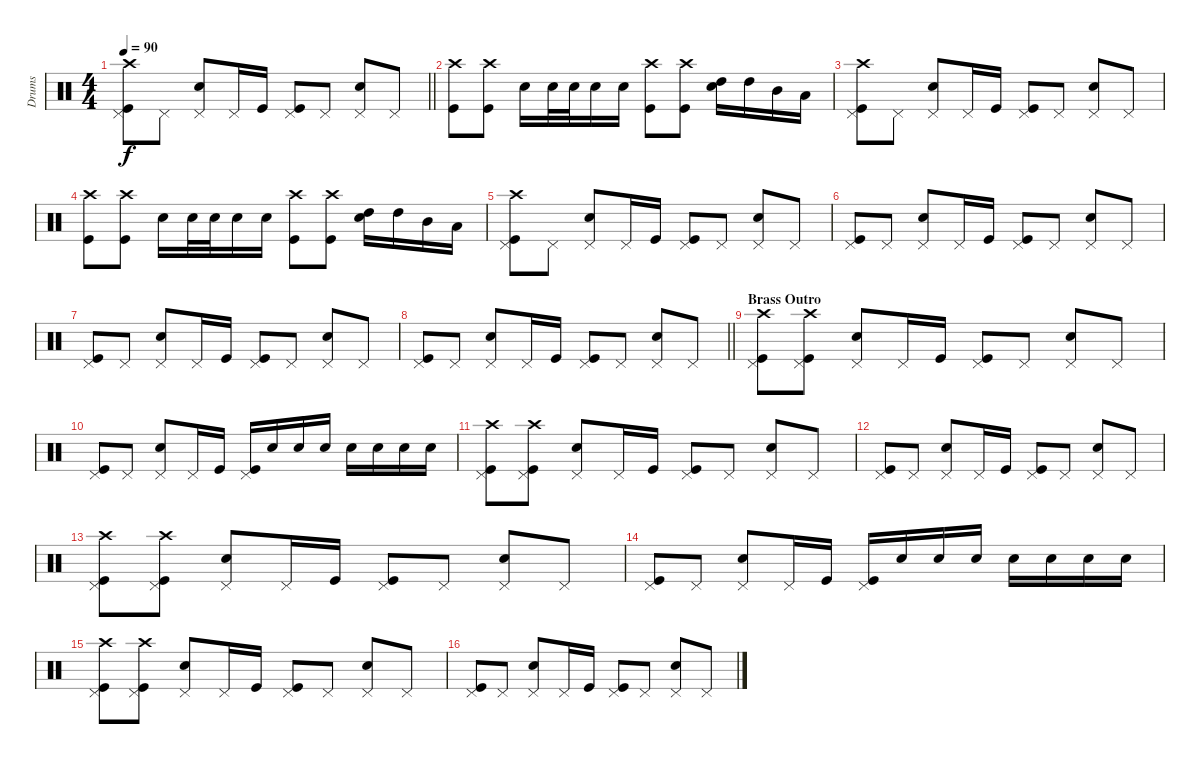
\track ("Drums" "Drums") {instrument percussion}
\staff {score}
\articulation defaults
\ts (4 4)
\tempo 90
\clef neutral
\barLineRight lightlight
\ks c
("Pedal Hi-Hat (hit)" "Kick (hit)" "Crash high (hit)").8{dy f} "Pedal Hi-Hat (hit)".8 ("Pedal Hi-Hat (hit)" "Snare (hit) 2").8 "Pedal Hi-Hat (hit)".16 "Kick (hit)".16 ("Pedal Hi-Hat (hit)" "Kick (hit)").8 "Pedal Hi-Hat (hit)".8 ("Pedal Hi-Hat (hit)" "Snare (hit) 2").8 "Pedal Hi-Hat (hit)".8 |
("Kick (hit)" "Crash high (hit)").8 ("Kick (hit)" "Crash high (hit)").8 "Snare (hit) 2".16 "Snare (hit) 2".32 "Snare (hit) 2".32 "Snare (hit) 2".16 "Snare (hit) 2".16 ("Kick (hit)" "Crash high (hit)").8 ("Kick (hit)" "Crash high (hit)").8 ("Snare (hit) 2" "High Tom (hit)").16 "High Tom (hit)".16 "Mid Tom (hit)".16 "Low Tom (hit)".16 |
("Pedal Hi-Hat (hit)" "Kick (hit)" "Crash high (hit)").8 "Pedal Hi-Hat (hit)".8 ("Pedal Hi-Hat (hit)" "Snare (hit) 2").8 "Pedal Hi-Hat (hit)".16 "Kick (hit)".16 ("Pedal Hi-Hat (hit)" "Kick (hit)").8 "Pedal Hi-Hat (hit)".8 ("Pedal Hi-Hat (hit)" "Snare (hit) 2").8 "Pedal Hi-Hat (hit)".8 |
("Kick (hit)" "Crash high (hit)").8 ("Kick (hit)" "Crash high (hit)").8 "Snare (hit) 2".16 "Snare (hit) 2".32 "Snare (hit) 2".32 "Snare (hit) 2".16 "Snare (hit) 2".16 ("Kick (hit)" "Crash high (hit)").8 ("Kick (hit)" "Crash high (hit)").8 ("Snare (hit) 2" "High Tom (hit)").16 "High Tom (hit)".16 "Mid Tom (hit)".16 "Low Tom (hit)".16 |
("Pedal Hi-Hat (hit)" "Kick (hit)" "Crash high (hit)").8 "Pedal Hi-Hat (hit)".8 ("Pedal Hi-Hat (hit)" "Snare (hit) 2").8 "Pedal Hi-Hat (hit)".16 "Kick (hit)".16 ("Pedal Hi-Hat (hit)" "Kick (hit)").8 "Pedal Hi-Hat (hit)".8 ("Pedal Hi-Hat (hit)" "Snare (hit) 2").8 "Pedal Hi-Hat (hit)".8 |
("Pedal Hi-Hat (hit)" "Kick (hit)").8 "Pedal Hi-Hat (hit)".8 ("Pedal Hi-Hat (hit)" "Snare (hit) 2").8 "Pedal Hi-Hat (hit)".16 "Kick (hit)".16 ("Pedal Hi-Hat (hit)" "Kick (hit)").8 "Pedal Hi-Hat (hit)".8 ("Pedal Hi-Hat (hit)" "Snare (hit) 2").8 "Pedal Hi-Hat (hit)".8 |
("Pedal Hi-Hat (hit)" "Kick (hit)").8 "Pedal Hi-Hat (hit)".8 ("Pedal Hi-Hat (hit)" "Snare (hit) 2").8 "Pedal Hi-Hat (hit)".16 "Kick (hit)".16 ("Pedal Hi-Hat (hit)" "Kick (hit)").8 "Pedal Hi-Hat (hit)".8 ("Pedal Hi-Hat (hit)" "Snare (hit) 2").8 "Pedal Hi-Hat (hit)".8 |
\barLineRight lightlight
("Pedal Hi-Hat (hit)" "Kick (hit)").8 "Pedal Hi-Hat (hit)".8 ("Pedal Hi-Hat (hit)" "Snare (hit) 2").8 "Pedal Hi-Hat (hit)".16 "Kick (hit)".16 ("Pedal Hi-Hat (hit)" "Kick (hit)").8 "Pedal Hi-Hat (hit)".8 ("Pedal Hi-Hat (hit)" "Snare (hit) 2").8 "Pedal Hi-Hat (hit)".8 |
\section ("" "Brass Outro")
("Pedal Hi-Hat (hit)" "Kick (hit)" "Crash high (hit)").8 ("Pedal Hi-Hat (hit)" "Kick (hit)" "Crash high (hit)").8 ("Pedal Hi-Hat (hit)" "Snare (hit) 2").8 "Pedal Hi-Hat (hit)".16 "Kick (hit)".16 ("Pedal Hi-Hat (hit)" "Kick (hit)").8 "Pedal Hi-Hat (hit)".8 ("Pedal Hi-Hat (hit)" "Snare (hit) 2").8 "Pedal Hi-Hat (hit)".8 |
("Pedal Hi-Hat (hit)" "Kick (hit)").8 "Pedal Hi-Hat (hit)".8 ("Pedal Hi-Hat (hit)" "Snare (hit) 2").8 "Pedal Hi-Hat (hit)".16 "Kick (hit)".16 ("Pedal Hi-Hat (hit)" "Kick (hit)").16 "Snare (hit) 2".16 "Snare (hit) 2".16 "Snare (hit) 2".16 "Snare (hit) 2".16 "Snare (hit) 2".16 "Snare (hit) 2".16 "Snare (hit) 2".16 |
("Pedal Hi-Hat (hit)" "Kick (hit)" "Crash high (hit)").8 ("Pedal Hi-Hat (hit)" "Kick (hit)" "Crash high (hit)").8 ("Pedal Hi-Hat (hit)" "Snare (hit) 2").8 "Pedal Hi-Hat (hit)".16 "Kick (hit)".16 ("Pedal Hi-Hat (hit)" "Kick (hit)").8 "Pedal Hi-Hat (hit)".8 ("Pedal Hi-Hat (hit)" "Snare (hit) 2").8 "Pedal Hi-Hat (hit)".8 |
("Pedal Hi-Hat (hit)" "Kick (hit)").8 "Pedal Hi-Hat (hit)".8 ("Pedal Hi-Hat (hit)" "Snare (hit) 2").8 "Pedal Hi-Hat (hit)".16 "Kick (hit)".16 ("Pedal Hi-Hat (hit)" "Kick (hit)").8 "Pedal Hi-Hat (hit)".8 ("Pedal Hi-Hat (hit)" "Snare (hit) 2").8 "Pedal Hi-Hat (hit)".8 |
("Pedal Hi-Hat (hit)" "Kick (hit)" "Crash high (hit)").8 ("Pedal Hi-Hat (hit)" "Kick (hit)" "Crash high (hit)").8 ("Pedal Hi-Hat (hit)" "Snare (hit) 2").8 "Pedal Hi-Hat (hit)".16 "Kick (hit)".16 ("Pedal Hi-Hat (hit)" "Kick (hit)").8 "Pedal Hi-Hat (hit)".8 ("Pedal Hi-Hat (hit)" "Snare (hit) 2").8 "Pedal Hi-Hat (hit)".8 |
("Pedal Hi-Hat (hit)" "Kick (hit)").8 "Pedal Hi-Hat (hit)".8 ("Pedal Hi-Hat (hit)" "Snare (hit) 2").8 "Pedal Hi-Hat (hit)".16 "Kick (hit)".16 ("Pedal Hi-Hat (hit)" "Kick (hit)").16 "Snare (hit) 2".16 "Snare (hit) 2".16 "Snare (hit) 2".16 "Snare (hit) 2".16 "Snare (hit) 2".16 "Snare (hit) 2".16 "Snare (hit) 2".16 |
("Pedal Hi-Hat (hit)" "Kick (hit)" "Crash high (hit)").8 ("Pedal Hi-Hat (hit)" "Kick (hit)" "Crash high (hit)").8 ("Pedal Hi-Hat (hit)" "Snare (hit) 2").8 "Pedal Hi-Hat (hit)".16 "Kick (hit)".16 ("Pedal Hi-Hat (hit)" "Kick (hit)").8 "Pedal Hi-Hat (hit)".8 ("Pedal Hi-Hat (hit)" "Snare (hit) 2").8 "Pedal Hi-Hat (hit)".8 |
("Pedal Hi-Hat (hit)" "Kick (hit)").8 "Pedal Hi-Hat (hit)".8 ("Pedal Hi-Hat (hit)" "Snare (hit) 2").8 "Pedal Hi-Hat (hit)".16 "Kick (hit)".16 ("Pedal Hi-Hat (hit)" "Kick (hit)").8 "Pedal Hi-Hat (hit)".8 ("Pedal Hi-Hat (hit)" "Snare (hit) 2").8 "Pedal Hi-Hat (hit)".8
